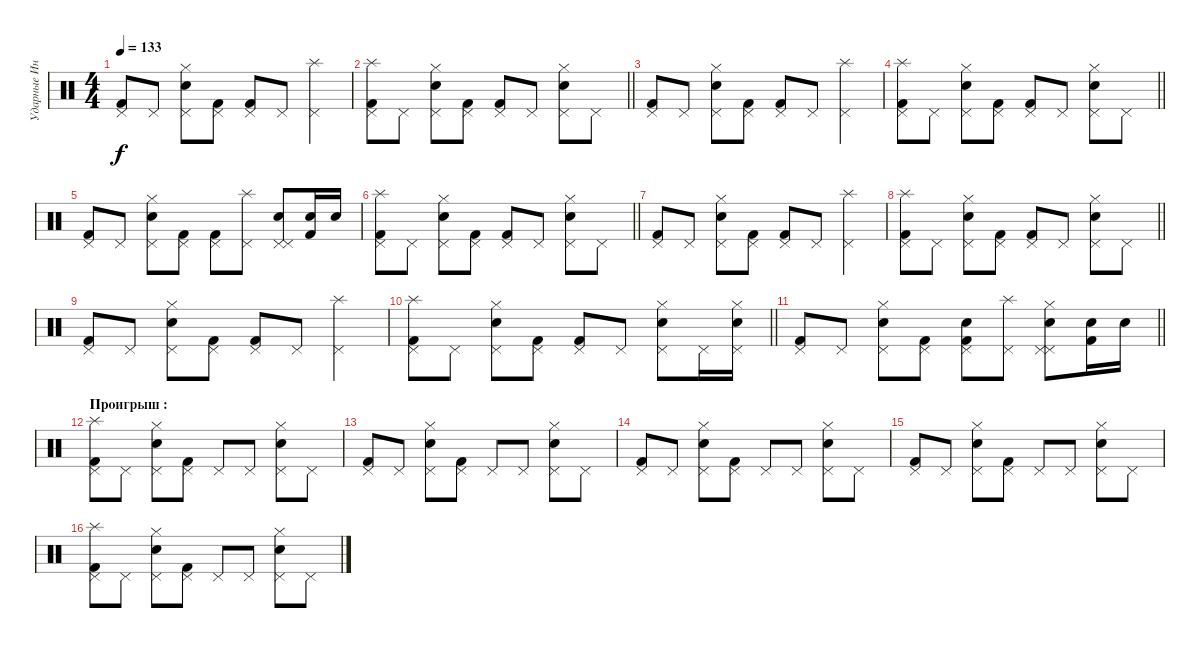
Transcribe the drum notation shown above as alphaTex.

\track ("Ударные Инструменты" "Ударные Ин") {instrument percussion}
\staff {score}
\articulation defaults
\ts (4 4)
\tempo 133
\clef neutral
\ks c
("Pedal Hi-Hat (hit)" "Kick (hit) 2").8{dy f} "Pedal Hi-Hat (hit)".8 ("Electric Snare (hit)" "Pedal Hi-Hat (hit)" "Hi-Hat (closed)").8 ("Pedal Hi-Hat (hit)" "Kick (hit) 2").8 ("Pedal Hi-Hat (hit)" "Kick (hit) 2").8 "Pedal Hi-Hat (hit)".8 ("Splash (hit)" "Pedal Hi-Hat (hit)").4 |
\barLineRight lightlight
("Splash (hit)" "Pedal Hi-Hat (hit)" "Kick (hit) 2").8 "Pedal Hi-Hat (hit)".8 ("Electric Snare (hit)" "Pedal Hi-Hat (hit)" "Hi-Hat (closed)").8 ("Pedal Hi-Hat (hit)" "Kick (hit) 2").8 ("Pedal Hi-Hat (hit)" "Kick (hit) 2").8 "Pedal Hi-Hat (hit)".8 ("Electric Snare (hit)" "Pedal Hi-Hat (hit)" "Hi-Hat (closed)").8 "Pedal Hi-Hat (hit)".8 |
("Pedal Hi-Hat (hit)" "Kick (hit) 2").8 "Pedal Hi-Hat (hit)".8 ("Electric Snare (hit)" "Pedal Hi-Hat (hit)" "Hi-Hat (closed)").8 ("Pedal Hi-Hat (hit)" "Kick (hit) 2").8 ("Pedal Hi-Hat (hit)" "Kick (hit) 2").8 "Pedal Hi-Hat (hit)".8 ("Splash (hit)" "Pedal Hi-Hat (hit)").4 |
\barLineRight lightlight
("Splash (hit)" "Pedal Hi-Hat (hit)" "Kick (hit) 2").8 "Pedal Hi-Hat (hit)".8 ("Electric Snare (hit)" "Pedal Hi-Hat (hit)" "Hi-Hat (closed)").8 ("Pedal Hi-Hat (hit)" "Kick (hit) 2").8 ("Pedal Hi-Hat (hit)" "Kick (hit) 2").8 "Pedal Hi-Hat (hit)".8 ("Electric Snare (hit)" "Pedal Hi-Hat (hit)" "Hi-Hat (closed)").8 "Pedal Hi-Hat (hit)".8 |
("Pedal Hi-Hat (hit)" "Kick (hit) 2").8 "Pedal Hi-Hat (hit)".8 ("Electric Snare (hit)" "Pedal Hi-Hat (hit)" "Hi-Hat (closed)").8 ("Pedal Hi-Hat (hit)" "Kick (hit) 2").8 ("Pedal Hi-Hat (hit)" "Kick (hit) 2").8 ("Splash (hit)" "Pedal Hi-Hat (hit)").8 ("Electric Snare (hit)" "Pedal Hi-Hat (hit)" "Pedal Hi-Hat (hit)").8 ("Snare (hit) 2" "Kick (hit) 2").16 "Snare (hit) 2".16 |
\barLineRight lightlight
("Splash (hit)" "Pedal Hi-Hat (hit)" "Kick (hit) 2").8 "Pedal Hi-Hat (hit)".8 ("Electric Snare (hit)" "Pedal Hi-Hat (hit)" "Hi-Hat (closed)").8 ("Pedal Hi-Hat (hit)" "Kick (hit) 2").8 ("Pedal Hi-Hat (hit)" "Kick (hit) 2").8 "Pedal Hi-Hat (hit)".8 ("Electric Snare (hit)" "Pedal Hi-Hat (hit)" "Hi-Hat (closed)").8 "Pedal Hi-Hat (hit)".8 |
("Pedal Hi-Hat (hit)" "Kick (hit) 2").8 "Pedal Hi-Hat (hit)".8 ("Electric Snare (hit)" "Pedal Hi-Hat (hit)" "Hi-Hat (closed)").8 ("Pedal Hi-Hat (hit)" "Kick (hit) 2").8 ("Pedal Hi-Hat (hit)" "Kick (hit) 2").8 "Pedal Hi-Hat (hit)".8 ("Splash (hit)" "Pedal Hi-Hat (hit)").4 |
\barLineRight lightlight
("Splash (hit)" "Pedal Hi-Hat (hit)" "Kick (hit) 2").8 "Pedal Hi-Hat (hit)".8 ("Electric Snare (hit)" "Pedal Hi-Hat (hit)" "Hi-Hat (closed)").8 ("Pedal Hi-Hat (hit)" "Kick (hit) 2").8 ("Pedal Hi-Hat (hit)" "Kick (hit) 2").8 "Pedal Hi-Hat (hit)".8 ("Electric Snare (hit)" "Pedal Hi-Hat (hit)" "Hi-Hat (closed)").8 "Pedal Hi-Hat (hit)".8 |
("Pedal Hi-Hat (hit)" "Kick (hit) 2").8 "Pedal Hi-Hat (hit)".8 ("Electric Snare (hit)" "Pedal Hi-Hat (hit)" "Hi-Hat (closed)").8 ("Pedal Hi-Hat (hit)" "Kick (hit) 2").8 ("Pedal Hi-Hat (hit)" "Kick (hit) 2").8 "Pedal Hi-Hat (hit)".8 ("Splash (hit)" "Pedal Hi-Hat (hit)").4 |
\barLineRight lightlight
("Splash (hit)" "Pedal Hi-Hat (hit)" "Kick (hit) 2").8 "Pedal Hi-Hat (hit)".8 ("Electric Snare (hit)" "Pedal Hi-Hat (hit)" "Hi-Hat (closed)").8 ("Pedal Hi-Hat (hit)" "Kick (hit) 2").8 ("Pedal Hi-Hat (hit)" "Kick (hit) 2").8 "Pedal Hi-Hat (hit)".8 ("Electric Snare (hit)" "Pedal Hi-Hat (hit)" "Hi-Hat (closed)").8 "Pedal Hi-Hat (hit)".16 ("Electric Snare (hit)" "Pedal Hi-Hat (hit)" "Hi-Hat (closed)").16 |
\barLineRight lightlight
("Pedal Hi-Hat (hit)" "Kick (hit) 2").8 "Pedal Hi-Hat (hit)".8 ("Electric Snare (hit)" "Pedal Hi-Hat (hit)" "Hi-Hat (closed)").8 ("Pedal Hi-Hat (hit)" "Kick (hit) 2").8 ("Snare (hit) 2" "Pedal Hi-Hat (hit)" "Kick (hit) 2").8 ("Splash (hit)" "Pedal Hi-Hat (hit)").8 ("Electric Snare (hit)" "Pedal Hi-Hat (hit)" "Hi-Hat (closed)" "Pedal Hi-Hat (hit)").8 ("Snare (hit) 2" "Kick (hit) 2").16 "Snare (hit) 2".16 |
\section ("" "Проигрыш :")
("Splash (hit)" "Pedal Hi-Hat (hit)" "Kick (hit) 2").8 "Pedal Hi-Hat (hit)".8 ("Electric Snare (hit)" "Pedal Hi-Hat (hit)" "Hi-Hat (closed)").8 ("Pedal Hi-Hat (hit)" "Kick (hit) 2").8 "Pedal Hi-Hat (hit)".8 "Pedal Hi-Hat (hit)".8 ("Electric Snare (hit)" "Pedal Hi-Hat (hit)" "Hi-Hat (closed)").8 "Pedal Hi-Hat (hit)".8 |
("Pedal Hi-Hat (hit)" "Kick (hit) 2").8 "Pedal Hi-Hat (hit)".8 ("Electric Snare (hit)" "Pedal Hi-Hat (hit)" "Hi-Hat (closed)").8 ("Pedal Hi-Hat (hit)" "Kick (hit) 2").8 "Pedal Hi-Hat (hit)".8 "Pedal Hi-Hat (hit)".8 ("Electric Snare (hit)" "Pedal Hi-Hat (hit)" "Hi-Hat (closed)").8 "Pedal Hi-Hat (hit)".8 |
("Pedal Hi-Hat (hit)" "Kick (hit) 2").8 "Pedal Hi-Hat (hit)".8 ("Electric Snare (hit)" "Pedal Hi-Hat (hit)" "Hi-Hat (closed)").8 ("Pedal Hi-Hat (hit)" "Kick (hit) 2").8 "Pedal Hi-Hat (hit)".8 "Pedal Hi-Hat (hit)".8 ("Electric Snare (hit)" "Pedal Hi-Hat (hit)" "Hi-Hat (closed)").8 "Pedal Hi-Hat (hit)".8 |
("Pedal Hi-Hat (hit)" "Kick (hit) 2").8 "Pedal Hi-Hat (hit)".8 ("Electric Snare (hit)" "Pedal Hi-Hat (hit)" "Hi-Hat (closed)").8 ("Pedal Hi-Hat (hit)" "Kick (hit) 2").8 "Pedal Hi-Hat (hit)".8 "Pedal Hi-Hat (hit)".8 ("Electric Snare (hit)" "Pedal Hi-Hat (hit)" "Hi-Hat (closed)").8 "Pedal Hi-Hat (hit)".8 |
("Splash (hit)" "Pedal Hi-Hat (hit)" "Kick (hit) 2").8 "Pedal Hi-Hat (hit)".8 ("Electric Snare (hit)" "Pedal Hi-Hat (hit)" "Hi-Hat (closed)").8 ("Pedal Hi-Hat (hit)" "Kick (hit) 2").8 "Pedal Hi-Hat (hit)".8 "Pedal Hi-Hat (hit)".8 ("Electric Snare (hit)" "Pedal Hi-Hat (hit)" "Hi-Hat (closed)").8 "Pedal Hi-Hat (hit)".8
